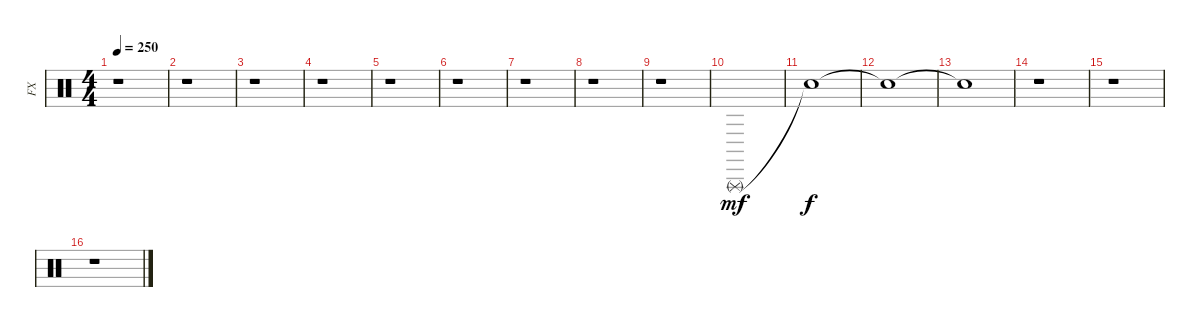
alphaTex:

\track ("FX" "FX") {instrument percussion}
\staff {score}
\articulation defaults
\ts (4 4)
\tempo 250
\clef neutral
\ks c
r.1{dy f} |
r.1 |
r.1 |
r.1 |
r.1 |
r.1 |
r.1 |
r.1 |
r.1 |
"Triangle (rnute)".1{dy mf} |
"Snare (hit)"{t}.1{dy f} |
"Snare (hit)"{t}.1 |
"Snare (hit)"{t}.1 |
r.1 |
r.1 |
r.1
